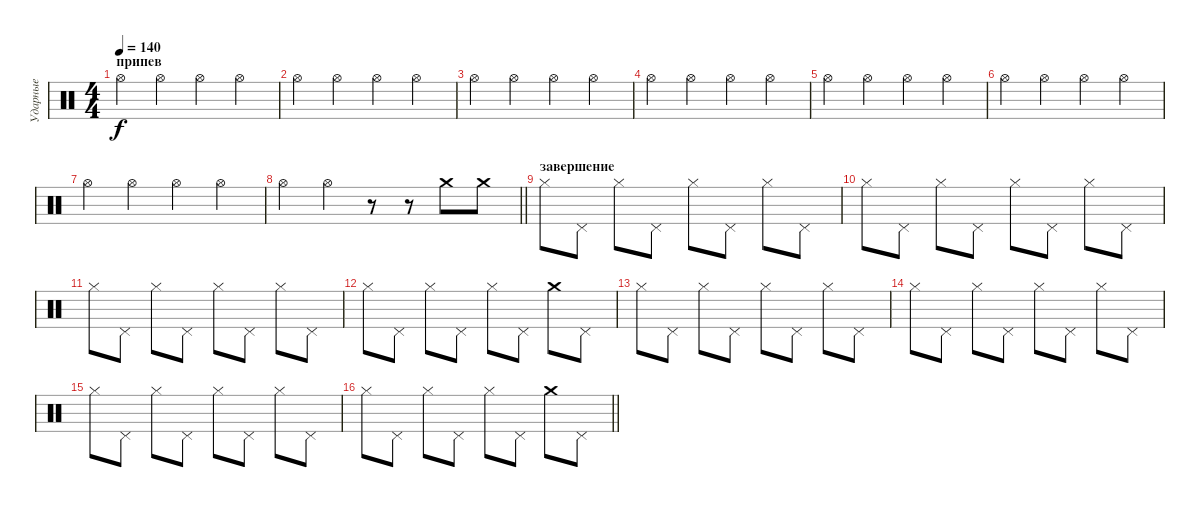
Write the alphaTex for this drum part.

\track ("Ударные" "Ударные") {instrument percussion}
\staff {score}
\articulation defaults
\ts (4 4)
\section ("" "припев")
\tempo 140
\clef neutral
\ks c "Hi-Hat (open)".4{dy f} "Hi-Hat (open)".4 "Hi-Hat (open)".4 "Hi-Hat (open)".4
|
"Hi-Hat (open)".4 "Hi-Hat (open)".4 "Hi-Hat (open)".4 "Hi-Hat (open)".4 |
"Hi-Hat (open)".4 "Hi-Hat (open)".4 "Hi-Hat (open)".4 "Hi-Hat (open)".4 |
"Hi-Hat (open)".4 "Hi-Hat (open)".4 "Hi-Hat (open)".4 "Hi-Hat (open)".4 |
"Hi-Hat (open)".4 "Hi-Hat (open)".4 "Hi-Hat (open)".4 "Hi-Hat (open)".4 |
"Hi-Hat (open)".4 "Hi-Hat (open)".4 "Hi-Hat (open)".4 "Hi-Hat (open)".4 |
"Hi-Hat (open)".4 "Hi-Hat (open)".4 "Hi-Hat (open)".4 "Hi-Hat (open)".4 |
\barLineRight lightlight "Hi-Hat (open)".4 "Hi-Hat (open)".4
r.8 r.8 "Crash medium (hit)".8 "Crash medium (hit)".8 |
\section ("" "завершение")
"Hi-Hat (closed)".8 "Pedal Hi-Hat (hit)".8 "Hi-Hat (closed)".8 "Pedal Hi-Hat (hit)".8 "Hi-Hat (closed)".8 "Pedal Hi-Hat (hit)".8 "Hi-Hat (closed)".8 "Pedal Hi-Hat (hit)".8 |
"Hi-Hat (closed)".8 "Pedal Hi-Hat (hit)".8 "Hi-Hat (closed)".8 "Pedal Hi-Hat (hit)".8 "Hi-Hat (closed)".8 "Pedal Hi-Hat (hit)".8 "Hi-Hat (closed)".8 "Pedal Hi-Hat (hit)".8 |
"Hi-Hat (closed)".8 "Pedal Hi-Hat (hit)".8 "Hi-Hat (closed)".8 "Pedal Hi-Hat (hit)".8 "Hi-Hat (closed)".8 "Pedal Hi-Hat (hit)".8 "Hi-Hat (closed)".8 "Pedal Hi-Hat (hit)".8 |
"Hi-Hat (closed)".8 "Pedal Hi-Hat (hit)".8 "Hi-Hat (closed)".8 "Pedal Hi-Hat (hit)".8 "Hi-Hat (closed)".8 "Pedal Hi-Hat (hit)".8 "Crash medium (hit)".8 "Pedal Hi-Hat (hit)".8 |
"Hi-Hat (closed)".8 "Pedal Hi-Hat (hit)".8 "Hi-Hat (closed)".8 "Pedal Hi-Hat (hit)".8 "Hi-Hat (closed)".8 "Pedal Hi-Hat (hit)".8 "Hi-Hat (closed)".8 "Pedal Hi-Hat (hit)".8 |
"Hi-Hat (closed)".8 "Pedal Hi-Hat (hit)".8 "Hi-Hat (closed)".8 "Pedal Hi-Hat (hit)".8 "Hi-Hat (closed)".8 "Pedal Hi-Hat (hit)".8 "Hi-Hat (closed)".8 "Pedal Hi-Hat (hit)".8 |
"Hi-Hat (closed)".8 "Pedal Hi-Hat (hit)".8 "Hi-Hat (closed)".8 "Pedal Hi-Hat (hit)".8 "Hi-Hat (closed)".8 "Pedal Hi-Hat (hit)".8 "Hi-Hat (closed)".8 "Pedal Hi-Hat (hit)".8 |
\barLineRight lightlight "Hi-Hat (closed)".8 "Pedal Hi-Hat (hit)".8 "Hi-Hat (closed)".8 "Pedal Hi-Hat (hit)".8 "Hi-Hat (closed)".8 "Pedal Hi-Hat (hit)".8 "Crash medium (hit)".8 "Pedal Hi-Hat (hit)".8
